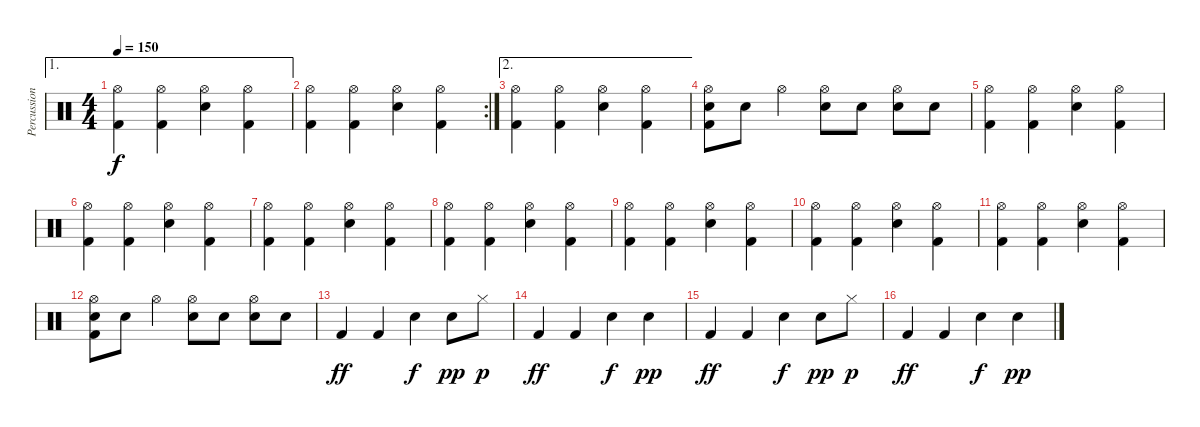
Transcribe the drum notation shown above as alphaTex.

\track ("Percussions" "Percussion") {instrument percussion}
\staff {score}
\articulation defaults
\ae 1
\ts (4 4)
\tempo 150
\clef neutral
\ks c
("Hi-Hat (open)" "Kick (hit) 2").4{dy f} ("Hi-Hat (open)" "Kick (hit) 2").4 ("Hi-Hat (open)" "Electric Snare (hit)").4 ("Hi-Hat (open)" "Kick (hit) 2").4 |
\rc 2
("Hi-Hat (open)" "Kick (hit) 2").4 ("Hi-Hat (open)" "Kick (hit) 2").4 ("Hi-Hat (open)" "Electric Snare (hit)").4 ("Hi-Hat (open)" "Kick (hit) 2").4 |
\ae 2
("Hi-Hat (open)" "Kick (hit) 2").4 ("Hi-Hat (open)" "Kick (hit) 2").4 ("Hi-Hat (open)" "Electric Snare (hit)").4 ("Hi-Hat (open)" "Kick (hit) 2").4 |
("Hi-Hat (open)" "Snare (hit) 2" "Kick (hit) 2").8 "Snare (hit) 2".8 "Hi-Hat (open)".4 ("Hi-Hat (open)" "Snare (hit) 2").8 "Snare (hit) 2".8 ("Hi-Hat (open)" "Snare (hit) 2").8 "Snare (hit) 2".8 |
("Hi-Hat (open)" "Kick (hit) 2").4 ("Hi-Hat (open)" "Kick (hit) 2").4 ("Hi-Hat (open)" "Electric Snare (hit)").4 ("Hi-Hat (open)" "Kick (hit) 2").4 |
("Hi-Hat (open)" "Kick (hit) 2").4 ("Hi-Hat (open)" "Kick (hit) 2").4 ("Hi-Hat (open)" "Electric Snare (hit)").4 ("Hi-Hat (open)" "Kick (hit) 2").4 |
("Hi-Hat (open)" "Kick (hit) 2").4 ("Hi-Hat (open)" "Kick (hit) 2").4 ("Hi-Hat (open)" "Electric Snare (hit)").4 ("Hi-Hat (open)" "Kick (hit) 2").4 |
("Hi-Hat (open)" "Kick (hit) 2").4 ("Hi-Hat (open)" "Kick (hit) 2").4 ("Hi-Hat (open)" "Electric Snare (hit)").4 ("Hi-Hat (open)" "Kick (hit) 2").4 |
("Hi-Hat (open)" "Kick (hit) 2").4 ("Hi-Hat (open)" "Kick (hit) 2").4 ("Hi-Hat (open)" "Electric Snare (hit)").4 ("Hi-Hat (open)" "Kick (hit) 2").4 |
("Hi-Hat (open)" "Kick (hit) 2").4 ("Hi-Hat (open)" "Kick (hit) 2").4 ("Hi-Hat (open)" "Electric Snare (hit)").4 ("Hi-Hat (open)" "Kick (hit) 2").4 |
("Hi-Hat (open)" "Kick (hit) 2").4 ("Hi-Hat (open)" "Kick (hit) 2").4 ("Hi-Hat (open)" "Electric Snare (hit)").4 ("Hi-Hat (open)" "Kick (hit) 2").4 |
("Hi-Hat (open)" "Snare (hit) 2" "Kick (hit) 2").8 "Snare (hit) 2".8 "Hi-Hat (open)".4 ("Hi-Hat (open)" "Snare (hit) 2").8 "Snare (hit) 2".8 ("Hi-Hat (open)" "Snare (hit) 2").8 "Snare (hit) 2".8 |
"Kick (hit) 2".4{dy ff} "Kick (hit) 2".4 "Snare (hit) 2".4{dy f} "Snare (hit) 2".8{dy pp} "Hi-Hat (closed)".8{dy p} |
"Kick (hit) 2".4{dy ff} "Kick (hit) 2".4 "Snare (hit) 2".4{dy f} "Snare (hit) 2".4{dy pp} |
"Kick (hit) 2".4{dy ff} "Kick (hit) 2".4 "Snare (hit) 2".4{dy f} "Snare (hit) 2".8{dy pp} "Hi-Hat (closed)".8{dy p} |
"Kick (hit) 2".4{dy ff} "Kick (hit) 2".4 "Snare (hit) 2".4{dy f} "Snare (hit) 2".4{dy pp}
